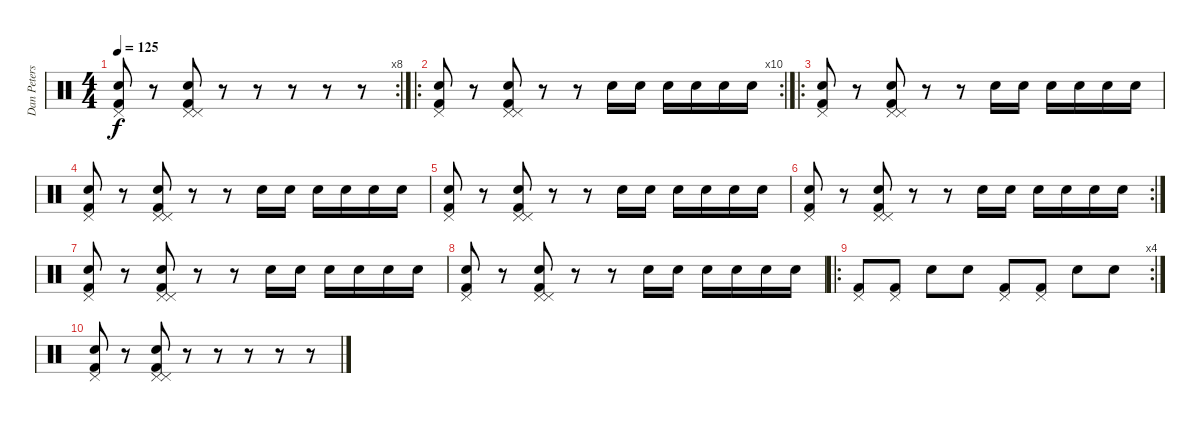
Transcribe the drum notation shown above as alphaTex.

\track ("Dan Peters - Drums" "Dan Peters") {instrument percussion}
\staff {score}
\articulation defaults
\rc 8
\ts (4 4)
\tempo 125
\clef neutral
\ks c
("Electric Snare (hit)" "Kick (hit) 2" "Pedal Hi-Hat (hit)").8{dy f} r.8 ("Electric Snare (hit)" "Kick (hit) 2" "Pedal Hi-Hat (hit)" "Pedal Hi-Hat (hit)").8 r.8 r.8 r.8 r.8 r.8 |
\ro
\rc 10
("Electric Snare (hit)" "Kick (hit) 2" "Pedal Hi-Hat (hit)").8 r.8 ("Electric Snare (hit)" "Kick (hit) 2" "Pedal Hi-Hat (hit)" "Pedal Hi-Hat (hit)").8 r.8 r.8 "Electric Snare (hit)".16 "Electric Snare (hit)".16 "Electric Snare (hit)".16 "Electric Snare (hit)".16 "Electric Snare (hit)".16 "Electric Snare (hit)".16 |
\ro
("Electric Snare (hit)" "Kick (hit) 2" "Pedal Hi-Hat (hit)").8 r.8 ("Electric Snare (hit)" "Kick (hit) 2" "Pedal Hi-Hat (hit)" "Pedal Hi-Hat (hit)").8 r.8 r.8 "Electric Snare (hit)".16 "Electric Snare (hit)".16 "Electric Snare (hit)".16 "Electric Snare (hit)".16 "Electric Snare (hit)".16 "Electric Snare (hit)".16 |
("Electric Snare (hit)" "Kick (hit) 2" "Pedal Hi-Hat (hit)").8 r.8 ("Electric Snare (hit)" "Kick (hit) 2" "Pedal Hi-Hat (hit)" "Pedal Hi-Hat (hit)").8 r.8 r.8 "Electric Snare (hit)".16 "Electric Snare (hit)".16 "Electric Snare (hit)".16 "Electric Snare (hit)".16 "Electric Snare (hit)".16 "Electric Snare (hit)".16 |
("Electric Snare (hit)" "Kick (hit) 2" "Pedal Hi-Hat (hit)").8 r.8 ("Electric Snare (hit)" "Kick (hit) 2" "Pedal Hi-Hat (hit)" "Pedal Hi-Hat (hit)").8 r.8 r.8 "Electric Snare (hit)".16 "Electric Snare (hit)".16 "Electric Snare (hit)".16 "Electric Snare (hit)".16 "Electric Snare (hit)".16 "Electric Snare (hit)".16 |
\rc 2
("Electric Snare (hit)" "Kick (hit) 2" "Pedal Hi-Hat (hit)").8 r.8 ("Electric Snare (hit)" "Kick (hit) 2" "Pedal Hi-Hat (hit)" "Pedal Hi-Hat (hit)").8 r.8 r.8 "Electric Snare (hit)".16 "Electric Snare (hit)".16 "Electric Snare (hit)".16 "Electric Snare (hit)".16 "Electric Snare (hit)".16 "Electric Snare (hit)".16 |
("Electric Snare (hit)" "Kick (hit) 2" "Pedal Hi-Hat (hit)").8 r.8 ("Electric Snare (hit)" "Kick (hit) 2" "Pedal Hi-Hat (hit)" "Pedal Hi-Hat (hit)").8 r.8 r.8 "Electric Snare (hit)".16 "Electric Snare (hit)".16 "Electric Snare (hit)".16 "Electric Snare (hit)".16 "Electric Snare (hit)".16 "Electric Snare (hit)".16 |
("Electric Snare (hit)" "Kick (hit) 2" "Pedal Hi-Hat (hit)").8 r.8 ("Electric Snare (hit)" "Kick (hit) 2" "Pedal Hi-Hat (hit)" "Pedal Hi-Hat (hit)").8 r.8 r.8 "Electric Snare (hit)".16 "Electric Snare (hit)".16 "Electric Snare (hit)".16 "Electric Snare (hit)".16 "Electric Snare (hit)".16 "Electric Snare (hit)".16 |
\ro
\rc 4
("Kick (hit) 2" "Pedal Hi-Hat (hit)").8 ("Kick (hit) 2" "Pedal Hi-Hat (hit)").8 "Electric Snare (hit)".8 "Electric Snare (hit)".8 ("Kick (hit) 2" "Pedal Hi-Hat (hit)").8 ("Kick (hit) 2" "Pedal Hi-Hat (hit)").8 "Electric Snare (hit)".8 "Electric Snare (hit)".8 |
("Electric Snare (hit)" "Kick (hit) 2" "Pedal Hi-Hat (hit)").8 r.8 ("Electric Snare (hit)" "Kick (hit) 2" "Pedal Hi-Hat (hit)" "Pedal Hi-Hat (hit)").8 r.8 r.8 r.8 r.8 r.8
